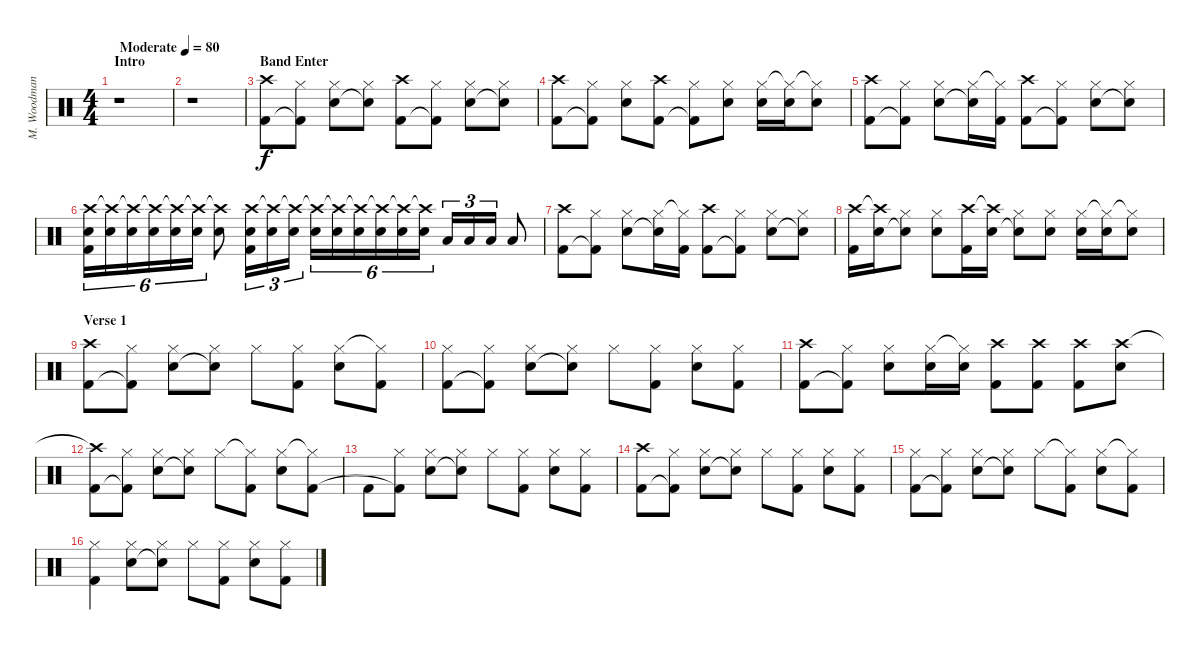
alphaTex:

\track ("M. Woodmansey" "M. Woodman") {instrument percussion}
\staff {score}
\articulation defaults
\ts (4 4)
\section ("" "Intro")
\tempo (80 "Moderate")
\clef neutral
\ks c
r.1{dy f} |
r.1 |
\section ("" "Band Enter")
("Crash high (hit)" "Kick (hit) 2").8 ("Hi-Hat (closed)" "Kick (hit) 2"{t}).8 ("Hi-Hat (closed)" "Electric Snare (hit)").8 ("Hi-Hat (closed)" "Electric Snare (hit)"{t}).8 ("Crash high (hit)" "Kick (hit) 2").8 ("Hi-Hat (closed)" "Kick (hit) 2"{t}).8 ("Hi-Hat (closed)" "Electric Snare (hit)").8 ("Hi-Hat (closed)" "Electric Snare (hit)"{t}).8 |
("Crash high (hit)" "Kick (hit) 2").8 ("Hi-Hat (closed)" "Kick (hit) 2"{t}).8 ("Hi-Hat (closed)" "Electric Snare (hit)").8 ("Crash high (hit)" "Kick (hit) 2").8 ("Hi-Hat (closed)" "Kick (hit) 2"{t}).8 ("Hi-Hat (closed)" "Electric Snare (hit)").8 ("Hi-Hat (closed)" "Electric Snare (hit)").16 ("Hi-Hat (closed)"{t} "Electric Snare (hit)").16 ("Hi-Hat (closed)"{t} "Electric Snare (hit)").8 |
("Crash high (hit)" "Kick (hit) 2").8 ("Hi-Hat (closed)" "Kick (hit) 2"{t}).8 ("Hi-Hat (closed)" "Electric Snare (hit)").8 ("Hi-Hat (closed)" "Electric Snare (hit)"{t}).16 ("Hi-Hat (closed)"{t} "Kick (hit) 2").16 ("Crash high (hit)" "Kick (hit) 2").8 ("Hi-Hat (closed)" "Kick (hit) 2"{t}).8 ("Hi-Hat (closed)" "Electric Snare (hit)").8 ("Hi-Hat (closed)" "Electric Snare (hit)"{t}).8 |
("Crash high (hit)" "Electric Snare (hit)" "Kick (hit) 2").16{tu (6 4)} ("Crash high (hit)"{t} "Electric Snare (hit)").16{tu (6 4)} ("Crash high (hit)"{t} "Electric Snare (hit)").16{tu (6 4)} ("Crash high (hit)"{t} "Electric Snare (hit)").16{tu (6 4)} ("Crash high (hit)"{t} "Electric Snare (hit)").16{tu (6 4)} ("Crash high (hit)"{t} "Electric Snare (hit)").16{tu (6 4)} ("Crash high (hit)"{t} "Electric Snare (hit)").8 ("Crash high (hit)" "Electric Snare (hit)" "Kick (hit) 2").16{tu (3 2)} ("Crash high (hit)"{t} "Electric Snare (hit)").16{tu (3 2)} ("Crash high (hit)"{t} "Electric Snare (hit)").16{tu (3 2)} ("Crash high (hit)"{t} "Electric Snare (hit)").16{tu (6 4)} ("Crash high (hit)"{t} "Electric Snare (hit)").16{tu (6 4)} ("Crash high (hit)"{t} "Electric Snare (hit)").16{tu (6 4)} ("Crash high (hit)"{t} "Electric Snare (hit)").16{tu (6 4)} ("Crash high (hit)"{t} "Electric Snare (hit)").16{tu (6 4)} ("Crash high (hit)"{t} "Electric Snare (hit)").16{tu (6 4)} "Low Floor Tom (hit)".16{tu (3 2)} "Low Floor Tom (hit)".16{tu (3 2)} "Low Floor Tom (hit)".16{tu (3 2)} "Low Floor Tom (hit)".8 |
("Crash high (hit)" "Kick (hit) 2").8 ("Hi-Hat (closed)" "Kick (hit) 2"{t}).8 ("Hi-Hat (closed)" "Electric Snare (hit)").8 ("Hi-Hat (closed)" "Electric Snare (hit)"{t}).16 ("Hi-Hat (closed)"{t} "Kick (hit) 2").16 ("Crash high (hit)" "Kick (hit) 2").8 ("Hi-Hat (closed)" "Kick (hit) 2"{t}).8 ("Hi-Hat (closed)" "Electric Snare (hit)").8 ("Hi-Hat (closed)" "Electric Snare (hit)"{t}).8 |
("Crash high (hit)" "Kick (hit) 2").16 ("Crash high (hit)"{t} "Electric Snare (hit)").16 ("Hi-Hat (closed)" "Electric Snare (hit)"{t}).8 ("Hi-Hat (closed)" "Electric Snare (hit)").8 ("Crash high (hit)" "Kick (hit) 2").16 ("Crash high (hit)"{t} "Electric Snare (hit)").16 ("Hi-Hat (closed)" "Electric Snare (hit)"{t}).8 ("Hi-Hat (closed)" "Electric Snare (hit)").8 ("Hi-Hat (closed)" "Electric Snare (hit)").16 ("Hi-Hat (closed)"{t} "Electric Snare (hit)").16 ("Hi-Hat (closed)"{t} "Electric Snare (hit)").8 |
\section ("" "Verse 1")
("Crash high (hit)" "Kick (hit) 2").8 ("Hi-Hat (closed)" "Kick (hit) 2"{t}).8 ("Hi-Hat (closed)" "Electric Snare (hit)").8 ("Hi-Hat (closed)" "Electric Snare (hit)"{t}).8 "Hi-Hat (closed)".8 ("Hi-Hat (closed)" "Kick (hit) 2").8 ("Hi-Hat (closed)" "Electric Snare (hit)").8 ("Hi-Hat (closed)"{t} "Kick (hit) 2").8 |
("Hi-Hat (closed)" "Kick (hit) 2").8 ("Hi-Hat (closed)" "Kick (hit) 2"{t}).8 ("Hi-Hat (closed)" "Electric Snare (hit)").8 ("Hi-Hat (closed)" "Electric Snare (hit)"{t}).8 "Hi-Hat (closed)".8 ("Hi-Hat (closed)" "Kick (hit) 2").8 ("Hi-Hat (closed)" "Electric Snare (hit)").8 ("Hi-Hat (closed)" "Kick (hit) 2").8 |
("Crash high (hit)" "Kick (hit) 2").8 ("Hi-Hat (closed)" "Kick (hit) 2"{t}).8 ("Hi-Hat (closed)" "Electric Snare (hit)").8 ("Hi-Hat (closed)" "Electric Snare (hit)").16 ("Hi-Hat (closed)"{t} "Electric Snare (hit)").16 ("Crash high (hit)" "Kick (hit) 2").8 ("Crash high (hit)" "Kick (hit) 2").8 ("Crash high (hit)" "Kick (hit) 2").8 ("Crash high (hit)" "Electric Snare (hit)").8 |
("Crash high (hit)"{t} "Kick (hit) 2").8 ("Hi-Hat (closed)" "Kick (hit) 2"{t}).8 ("Hi-Hat (closed)" "Electric Snare (hit)").8 ("Hi-Hat (closed)" "Electric Snare (hit)"{t}).8 "Hi-Hat (closed)".8 ("Hi-Hat (closed)"{t} "Kick (hit) 2").8 ("Hi-Hat (closed)" "Electric Snare (hit)").8 ("Hi-Hat (closed)"{t} "Kick (hit) 2").8 |
"Kick (hit) 2".8 ("Hi-Hat (closed)" "Kick (hit) 2"{t}).8 ("Hi-Hat (closed)" "Electric Snare (hit)").8 ("Hi-Hat (closed)" "Electric Snare (hit)"{t}).8 "Hi-Hat (closed)".8 ("Hi-Hat (closed)" "Kick (hit) 2").8 ("Hi-Hat (closed)" "Electric Snare (hit)").8 ("Hi-Hat (closed)" "Kick (hit) 2").8 |
("Crash high (hit)" "Kick (hit) 2").8 ("Hi-Hat (closed)" "Kick (hit) 2"{t}).8 ("Hi-Hat (closed)" "Electric Snare (hit)").8 ("Hi-Hat (closed)" "Electric Snare (hit)"{t}).8 "Hi-Hat (closed)".8 ("Hi-Hat (closed)" "Kick (hit) 2").8 ("Hi-Hat (closed)" "Electric Snare (hit)").8 ("Hi-Hat (closed)" "Kick (hit) 2").8 |
("Hi-Hat (closed)" "Kick (hit) 2").8 ("Hi-Hat (closed)" "Kick (hit) 2"{t}).8 ("Hi-Hat (closed)" "Electric Snare (hit)").8 ("Hi-Hat (closed)" "Electric Snare (hit)"{t}).8 "Hi-Hat (closed)".8 ("Hi-Hat (closed)"{t} "Kick (hit) 2").8 ("Hi-Hat (closed)" "Electric Snare (hit)").8 ("Hi-Hat (closed)"{t} "Kick (hit) 2").8 |
("Hi-Hat (closed)" "Kick (hit) 2").4 ("Hi-Hat (closed)" "Electric Snare (hit)").8 ("Hi-Hat (closed)" "Electric Snare (hit)"{t}).8 "Hi-Hat (closed)".8 ("Hi-Hat (closed)" "Kick (hit) 2").8 ("Hi-Hat (closed)" "Electric Snare (hit)").8 ("Hi-Hat (closed)" "Kick (hit) 2").8
